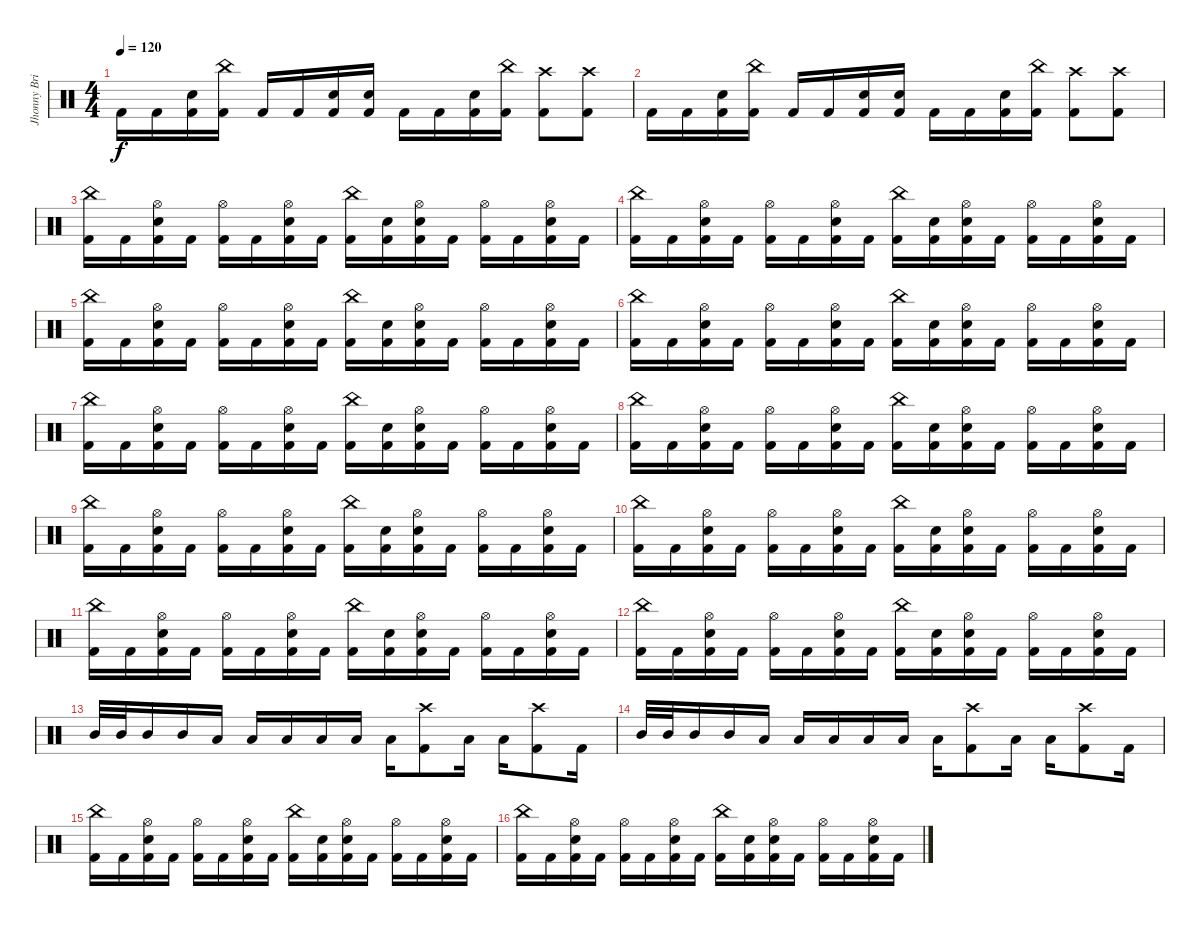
\track ("Jhonny Brillante" "Jhonny Bri") {instrument percussion}
\staff {score}
\articulation defaults
\ts (4 4)
\tempo 120
\clef neutral
\ks c "Kick (hit) 2".16{dy f} "Kick (hit) 2".16
("Snare (hit) 2" "Kick (hit) 2").16 ("China (hit)" "Kick (hit) 2").16 "Kick (hit) 2".16 "Kick (hit) 2".16 ("Snare (hit) 2" "Kick (hit) 2").16 ("Snare (hit) 2" "Kick (hit) 2").16 "Kick (hit) 2".16 "Kick (hit) 2".16 ("Snare (hit) 2" "Kick (hit) 2").16 ("China (hit)" "Kick (hit) 2").16 ("Crash high (hit)" "Kick (hit) 2").8 ("Crash high (hit)" "Kick (hit) 2").8 |
"Kick (hit) 2".16 "Kick (hit) 2".16 ("Snare (hit) 2" "Kick (hit) 2").16 ("China (hit)" "Kick (hit) 2").16 "Kick (hit) 2".16 "Kick (hit) 2".16 ("Snare (hit) 2" "Kick (hit) 2").16 ("Snare (hit) 2" "Kick (hit) 2").16 "Kick (hit) 2".16 "Kick (hit) 2".16 ("Snare (hit) 2" "Kick (hit) 2").16 ("China (hit)" "Kick (hit) 2").16 ("Crash high (hit)" "Kick (hit) 2").8 ("Crash high (hit)" "Kick (hit) 2").8 |
("China (hit)" "Kick (hit) 2").16{volume 12} "Kick (hit) 2".16 ("Hi-Hat (open)" "Snare (hit) 2" "Kick (hit) 2").16 "Kick (hit) 2".16 ("Hi-Hat (open)" "Kick (hit) 2").16 "Kick (hit) 2".16 ("Hi-Hat (open)" "Snare (hit) 2" "Kick (hit) 2").16 "Kick (hit) 2".16 ("China (hit)" "Kick (hit) 2").16 ("Snare (hit) 2" "Kick (hit) 2").16 ("Hi-Hat (open)" "Snare (hit) 2" "Kick (hit) 2").16 "Kick (hit) 2".16 ("Hi-Hat (open)" "Kick (hit) 2").16 "Kick (hit) 2".16 ("Hi-Hat (open)" "Snare (hit) 2" "Kick (hit) 2").16 "Kick (hit) 2".16 |
("China (hit)" "Kick (hit) 2").16 "Kick (hit) 2".16 ("Hi-Hat (open)" "Snare (hit) 2" "Kick (hit) 2").16 "Kick (hit) 2".16 ("Hi-Hat (open)" "Kick (hit) 2").16 "Kick (hit) 2".16 ("Hi-Hat (open)" "Snare (hit) 2" "Kick (hit) 2").16 "Kick (hit) 2".16 ("China (hit)" "Kick (hit) 2").16 ("Snare (hit) 2" "Kick (hit) 2").16 ("Hi-Hat (open)" "Snare (hit) 2" "Kick (hit) 2").16 "Kick (hit) 2".16 ("Hi-Hat (open)" "Kick (hit) 2").16 "Kick (hit) 2".16 ("Hi-Hat (open)" "Snare (hit) 2" "Kick (hit) 2").16 "Kick (hit) 2".16 |
("China (hit)" "Kick (hit) 2").16 "Kick (hit) 2".16 ("Hi-Hat (open)" "Snare (hit) 2" "Kick (hit) 2").16 "Kick (hit) 2".16 ("Hi-Hat (open)" "Kick (hit) 2").16 "Kick (hit) 2".16 ("Hi-Hat (open)" "Snare (hit) 2" "Kick (hit) 2").16 "Kick (hit) 2".16 ("China (hit)" "Kick (hit) 2").16 ("Snare (hit) 2" "Kick (hit) 2").16 ("Hi-Hat (open)" "Snare (hit) 2" "Kick (hit) 2").16 "Kick (hit) 2".16 ("Hi-Hat (open)" "Kick (hit) 2").16 "Kick (hit) 2".16 ("Hi-Hat (open)" "Snare (hit) 2" "Kick (hit) 2").16 "Kick (hit) 2".16 |
("China (hit)" "Kick (hit) 2").16 "Kick (hit) 2".16 ("Hi-Hat (open)" "Snare (hit) 2" "Kick (hit) 2").16 "Kick (hit) 2".16 ("Hi-Hat (open)" "Kick (hit) 2").16 "Kick (hit) 2".16 ("Hi-Hat (open)" "Snare (hit) 2" "Kick (hit) 2").16 "Kick (hit) 2".16 ("China (hit)" "Kick (hit) 2").16 ("Snare (hit) 2" "Kick (hit) 2").16 ("Hi-Hat (open)" "Snare (hit) 2" "Kick (hit) 2").16 "Kick (hit) 2".16 ("Hi-Hat (open)" "Kick (hit) 2").16 "Kick (hit) 2".16 ("Hi-Hat (open)" "Snare (hit) 2" "Kick (hit) 2").16 "Kick (hit) 2".16 |
("China (hit)" "Kick (hit) 2").16 "Kick (hit) 2".16 ("Hi-Hat (open)" "Snare (hit) 2" "Kick (hit) 2").16 "Kick (hit) 2".16 ("Hi-Hat (open)" "Kick (hit) 2").16 "Kick (hit) 2".16 ("Hi-Hat (open)" "Snare (hit) 2" "Kick (hit) 2").16 "Kick (hit) 2".16 ("China (hit)" "Kick (hit) 2").16 ("Snare (hit) 2" "Kick (hit) 2").16 ("Hi-Hat (open)" "Snare (hit) 2" "Kick (hit) 2").16 "Kick (hit) 2".16 ("Hi-Hat (open)" "Kick (hit) 2").16 "Kick (hit) 2".16 ("Hi-Hat (open)" "Snare (hit) 2" "Kick (hit) 2").16 "Kick (hit) 2".16 |
("China (hit)" "Kick (hit) 2").16 "Kick (hit) 2".16 ("Hi-Hat (open)" "Snare (hit) 2" "Kick (hit) 2").16 "Kick (hit) 2".16 ("Hi-Hat (open)" "Kick (hit) 2").16 "Kick (hit) 2".16 ("Hi-Hat (open)" "Snare (hit) 2" "Kick (hit) 2").16 "Kick (hit) 2".16 ("China (hit)" "Kick (hit) 2").16 ("Snare (hit) 2" "Kick (hit) 2").16 ("Hi-Hat (open)" "Snare (hit) 2" "Kick (hit) 2").16 "Kick (hit) 2".16 ("Hi-Hat (open)" "Kick (hit) 2").16 "Kick (hit) 2".16 ("Hi-Hat (open)" "Snare (hit) 2" "Kick (hit) 2").16 "Kick (hit) 2".16 |
("China (hit)" "Kick (hit) 2").16 "Kick (hit) 2".16 ("Hi-Hat (open)" "Snare (hit) 2" "Kick (hit) 2").16 "Kick (hit) 2".16 ("Hi-Hat (open)" "Kick (hit) 2").16 "Kick (hit) 2".16 ("Hi-Hat (open)" "Snare (hit) 2" "Kick (hit) 2").16 "Kick (hit) 2".16 ("China (hit)" "Kick (hit) 2").16 ("Snare (hit) 2" "Kick (hit) 2").16 ("Hi-Hat (open)" "Snare (hit) 2" "Kick (hit) 2").16 "Kick (hit) 2".16 ("Hi-Hat (open)" "Kick (hit) 2").16 "Kick (hit) 2".16 ("Hi-Hat (open)" "Snare (hit) 2" "Kick (hit) 2").16 "Kick (hit) 2".16 |
("China (hit)" "Kick (hit) 2").16 "Kick (hit) 2".16 ("Hi-Hat (open)" "Snare (hit) 2" "Kick (hit) 2").16 "Kick (hit) 2".16 ("Hi-Hat (open)" "Kick (hit) 2").16 "Kick (hit) 2".16 ("Hi-Hat (open)" "Snare (hit) 2" "Kick (hit) 2").16 "Kick (hit) 2".16 ("China (hit)" "Kick (hit) 2").16 ("Snare (hit) 2" "Kick (hit) 2").16 ("Hi-Hat (open)" "Snare (hit) 2" "Kick (hit) 2").16 "Kick (hit) 2".16 ("Hi-Hat (open)" "Kick (hit) 2").16 "Kick (hit) 2".16 ("Hi-Hat (open)" "Snare (hit) 2" "Kick (hit) 2").16 "Kick (hit) 2".16 |
("China (hit)" "Kick (hit) 2").16 "Kick (hit) 2".16 ("Hi-Hat (open)" "Snare (hit) 2" "Kick (hit) 2").16 "Kick (hit) 2".16 ("Hi-Hat (open)" "Kick (hit) 2").16 "Kick (hit) 2".16 ("Hi-Hat (open)" "Snare (hit) 2" "Kick (hit) 2").16 "Kick (hit) 2".16 ("China (hit)" "Kick (hit) 2").16 ("Snare (hit) 2" "Kick (hit) 2").16 ("Hi-Hat (open)" "Snare (hit) 2" "Kick (hit) 2").16 "Kick (hit) 2".16 ("Hi-Hat (open)" "Kick (hit) 2").16 "Kick (hit) 2".16 ("Hi-Hat (open)" "Snare (hit) 2" "Kick (hit) 2").16 "Kick (hit) 2".16 |
("China (hit)" "Kick (hit) 2").16 "Kick (hit) 2".16 ("Hi-Hat (open)" "Snare (hit) 2" "Kick (hit) 2").16 "Kick (hit) 2".16 ("Hi-Hat (open)" "Kick (hit) 2").16 "Kick (hit) 2".16 ("Hi-Hat (open)" "Snare (hit) 2" "Kick (hit) 2").16 "Kick (hit) 2".16 ("China (hit)" "Kick (hit) 2").16 ("Snare (hit) 2" "Kick (hit) 2").16 ("Hi-Hat (open)" "Snare (hit) 2" "Kick (hit) 2").16 "Kick (hit) 2".16 ("Hi-Hat (open)" "Kick (hit) 2").16 "Kick (hit) 2".16 ("Hi-Hat (open)" "Snare (hit) 2" "Kick (hit) 2").16 "Kick (hit) 2".16 |
"Mid Tom (hit)".32{volume 13} "Mid Tom (hit)".32 "Mid Tom (hit)".16 "Mid Tom (hit)".16 "Low Tom (hit)".16 "Low Tom (hit)".16 "Low Tom (hit)".16 "Low Tom (hit)".16 "Low Tom (hit)".16 "Low Tom (hit)".16 ("Crash high (hit)" "Kick (hit) 2").8 "Low Tom (hit)".16 "Low Tom (hit)".16 ("Crash high (hit)" "Kick (hit) 2").8 "Kick (hit) 2".16 |
"Mid Tom (hit)".32 "Mid Tom (hit)".32 "Mid Tom (hit)".16 "Mid Tom (hit)".16 "Low Tom (hit)".16 "Low Tom (hit)".16 "Low Tom (hit)".16 "Low Tom (hit)".16 "Low Tom (hit)".16 "Low Tom (hit)".16 ("Crash high (hit)" "Kick (hit) 2").8 "Low Tom (hit)".16 "Low Tom (hit)".16 ("Crash high (hit)" "Kick (hit) 2").8 "Kick (hit) 2".16 |
("China (hit)" "Kick (hit) 2").16 "Kick (hit) 2".16 ("Hi-Hat (open)" "Snare (hit) 2" "Kick (hit) 2").16 "Kick (hit) 2".16 ("Hi-Hat (open)" "Kick (hit) 2").16 "Kick (hit) 2".16 ("Hi-Hat (open)" "Snare (hit) 2" "Kick (hit) 2").16 "Kick (hit) 2".16 ("China (hit)" "Kick (hit) 2").16 ("Snare (hit) 2" "Kick (hit) 2").16 ("Hi-Hat (open)" "Snare (hit) 2" "Kick (hit) 2").16 "Kick (hit) 2".16 ("Hi-Hat (open)" "Kick (hit) 2").16 "Kick (hit) 2".16 ("Hi-Hat (open)" "Snare (hit) 2" "Kick (hit) 2").16 "Kick (hit) 2".16 |
("China (hit)" "Kick (hit) 2").16 "Kick (hit) 2".16 ("Hi-Hat (open)" "Snare (hit) 2" "Kick (hit) 2").16 "Kick (hit) 2".16 ("Hi-Hat (open)" "Kick (hit) 2").16 "Kick (hit) 2".16 ("Hi-Hat (open)" "Snare (hit) 2" "Kick (hit) 2").16 "Kick (hit) 2".16 ("China (hit)" "Kick (hit) 2").16 ("Snare (hit) 2" "Kick (hit) 2").16 ("Hi-Hat (open)" "Snare (hit) 2" "Kick (hit) 2").16 "Kick (hit) 2".16 ("Hi-Hat (open)" "Kick (hit) 2").16 "Kick (hit) 2".16 ("Hi-Hat (open)" "Snare (hit) 2" "Kick (hit) 2").16 "Kick (hit) 2".16
